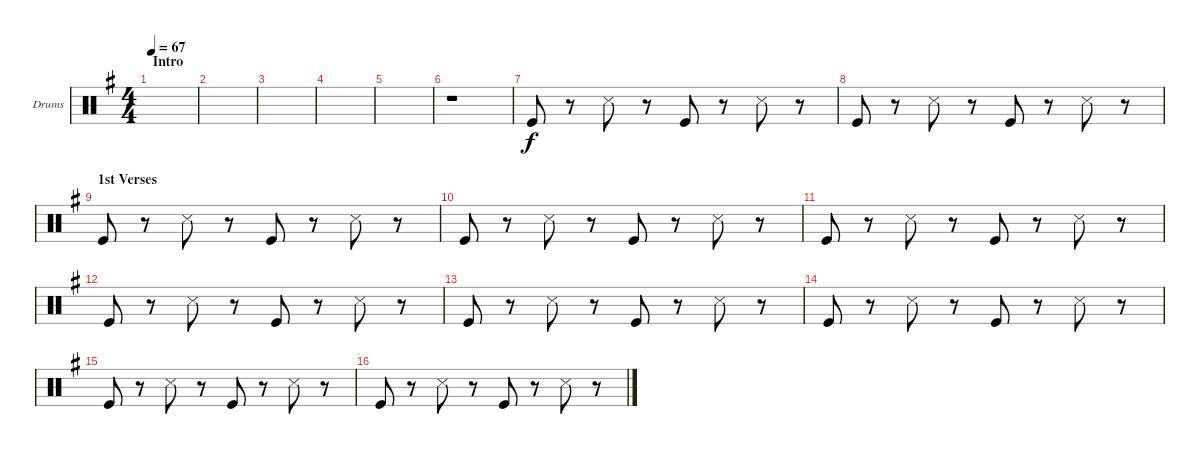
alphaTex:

\bracketExtendMode groupsimilarinstruments
\firstSystemTrackNameOrientation horizontal
\otherSystemsTrackNameOrientation horizontal
\track ("Drumkit" "Drums") {instrument percussion}
\staff {score}
\articulation defaults
\ts (4 4)
\beaming (8 2 2 2 2)
\section ("" "Intro")
\tempo 67
\clef neutral
\scale
0.502183
\ks g
|
\scale
0.248908 |
\scale
0.248908 |
\scale
0.333333 |
\scale
0.333333 |
\scale
0.333333 r.1 |
\scale
0.311475 "Kick (hit)".8 r.8 "Snare (side stick) 3".8 r.8 "Kick (hit)".8 r.8 "Snare (side stick) 3".8 r.8 |
\scale
0.311475 "Kick (hit)".8 r.8 "Snare (side stick) 3".8 r.8 "Kick (hit)".8 r.8 "Snare (side stick) 3".8 r.8 |
\section ("" "1st Verses")
\scale
0.377049 "Kick (hit)".8 r.8 "Snare (side stick) 3".8 r.8 "Kick (hit)".8 r.8 "Snare (side stick) 3".8 r.8 |
\scale
0.333333 "Kick (hit)".8 r.8 "Snare (side stick) 3".8 r.8 "Kick (hit)".8 r.8 "Snare (side stick) 3".8 r.8 |
\scale
0.333333 "Kick (hit)".8 r.8 "Snare (side stick) 3".8 r.8 "Kick (hit)".8 r.8 "Snare (side stick) 3".8 r.8 |
\scale
0.333333 "Kick (hit)".8 r.8 "Snare (side stick) 3".8 r.8 "Kick (hit)".8 r.8 "Snare (side stick) 3".8 r.8 |
\scale
0.333333 "Kick (hit)".8 r.8 "Snare (side stick) 3".8 r.8 "Kick (hit)".8 r.8 "Snare (side stick) 3".8 r.8 |
\scale
0.333333 "Kick (hit)".8 r.8 "Snare (side stick) 3".8 r.8 "Kick (hit)".8 r.8 "Snare (side stick) 3".8 r.8 |
\scale
0.333333 "Kick (hit)".8 r.8 "Snare (side stick) 3".8 r.8 "Kick (hit)".8 r.8 "Snare (side stick) 3".8 r.8 |
\scale
0.333333 "Kick (hit)".8 r.8 "Snare (side stick) 3".8 r.8 "Kick (hit)".8 r.8 "Snare (side stick) 3".8 r.8
